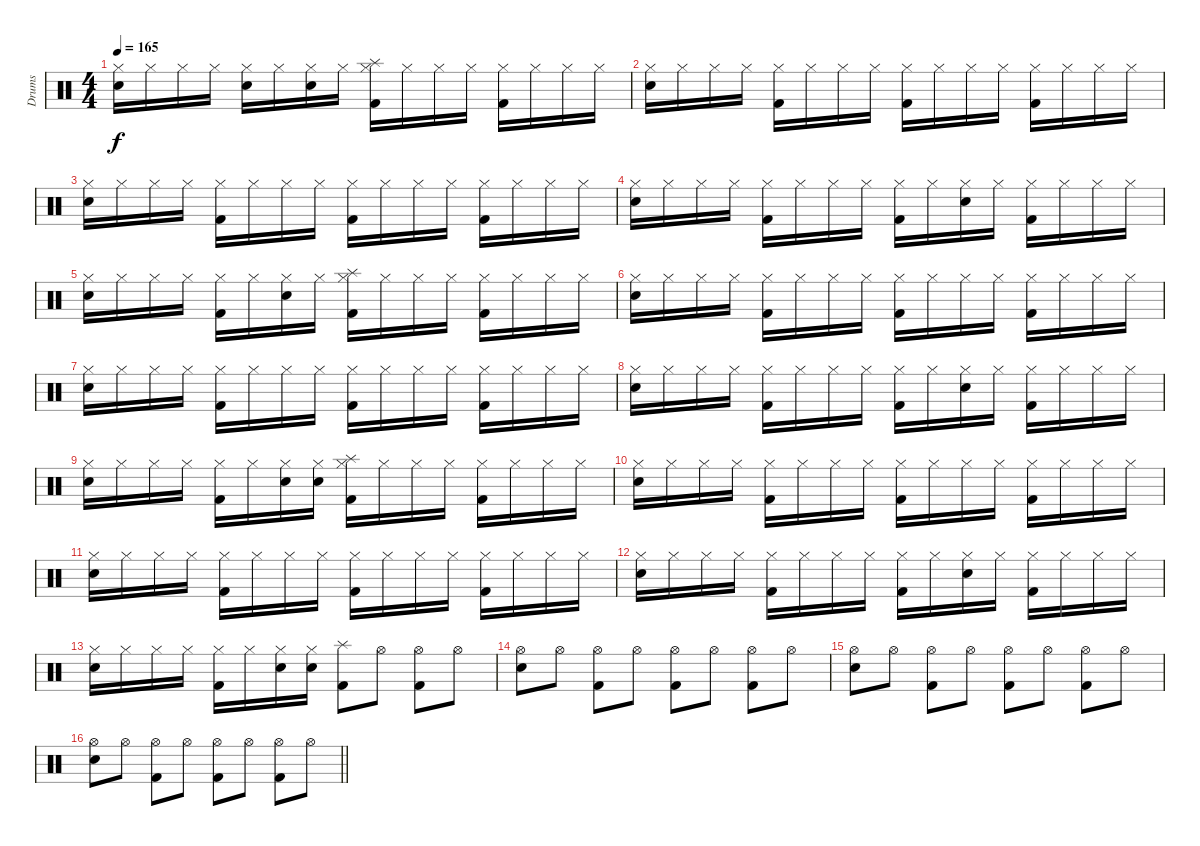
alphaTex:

\track ("Drums" "Drums") {instrument percussion}
\staff {score}
\articulation defaults
\ts (4 4)
\tempo 165
\clef neutral
\ks c
("Hi-Hat (closed)" "Electric Snare (hit)").16{dy f} "Hi-Hat (closed)".16 "Hi-Hat (closed)".16 "Hi-Hat (closed)".16 ("Hi-Hat (closed)" "Electric Snare (hit)").16 "Hi-Hat (closed)".16 ("Hi-Hat (closed)" "Electric Snare (hit)").16 "Hi-Hat (closed)".16 ("Splash (hit)" "Kick (hit) 2" "Hi-Hat (closed)").16 "Hi-Hat (closed)".16 "Hi-Hat (closed)".16 "Hi-Hat (closed)".16 ("Kick (hit) 2" "Hi-Hat (closed)").16 "Hi-Hat (closed)".16 "Hi-Hat (closed)".16 "Hi-Hat (closed)".16 |
("Hi-Hat (closed)" "Electric Snare (hit)").16 "Hi-Hat (closed)".16 "Hi-Hat (closed)".16 "Hi-Hat (closed)".16 ("Kick (hit) 2" "Hi-Hat (closed)").16 "Hi-Hat (closed)".16 "Hi-Hat (closed)".16 "Hi-Hat (closed)".16 ("Kick (hit) 2" "Hi-Hat (closed)").16 "Hi-Hat (closed)".16 "Hi-Hat (closed)".16 "Hi-Hat (closed)".16 ("Kick (hit) 2" "Hi-Hat (closed)").16 "Hi-Hat (closed)".16 "Hi-Hat (closed)".16 "Hi-Hat (closed)".16 |
("Hi-Hat (closed)" "Electric Snare (hit)").16 "Hi-Hat (closed)".16 "Hi-Hat (closed)".16 "Hi-Hat (closed)".16 ("Kick (hit) 2" "Hi-Hat (closed)").16 "Hi-Hat (closed)".16 "Hi-Hat (closed)".16 "Hi-Hat (closed)".16 ("Kick (hit) 2" "Hi-Hat (closed)").16 "Hi-Hat (closed)".16 "Hi-Hat (closed)".16 "Hi-Hat (closed)".16 ("Kick (hit) 2" "Hi-Hat (closed)").16 "Hi-Hat (closed)".16 "Hi-Hat (closed)".16 "Hi-Hat (closed)".16 |
("Hi-Hat (closed)" "Electric Snare (hit)").16 "Hi-Hat (closed)".16 "Hi-Hat (closed)".16 "Hi-Hat (closed)".16 ("Kick (hit) 2" "Hi-Hat (closed)").16 "Hi-Hat (closed)".16 "Hi-Hat (closed)".16 "Hi-Hat (closed)".16 ("Kick (hit) 2" "Hi-Hat (closed)").16 "Hi-Hat (closed)".16 ("Hi-Hat (closed)" "Electric Snare (hit)").16 "Hi-Hat (closed)".16 ("Kick (hit) 2" "Hi-Hat (closed)").16 "Hi-Hat (closed)".16 "Hi-Hat (closed)".16 "Hi-Hat (closed)".16 |
("Hi-Hat (closed)" "Electric Snare (hit)").16 "Hi-Hat (closed)".16 "Hi-Hat (closed)".16 "Hi-Hat (closed)".16 ("Kick (hit) 2" "Hi-Hat (closed)").16 "Hi-Hat (closed)".16 ("Hi-Hat (closed)" "Electric Snare (hit)").16 "Hi-Hat (closed)".16 ("Splash (hit)" "Kick (hit) 2" "Hi-Hat (closed)").16 "Hi-Hat (closed)".16 "Hi-Hat (closed)".16 "Hi-Hat (closed)".16 ("Kick (hit) 2" "Hi-Hat (closed)").16 "Hi-Hat (closed)".16 "Hi-Hat (closed)".16 "Hi-Hat (closed)".16 |
("Hi-Hat (closed)" "Electric Snare (hit)").16 "Hi-Hat (closed)".16 "Hi-Hat (closed)".16 "Hi-Hat (closed)".16 ("Kick (hit) 2" "Hi-Hat (closed)").16 "Hi-Hat (closed)".16 "Hi-Hat (closed)".16 "Hi-Hat (closed)".16 ("Kick (hit) 2" "Hi-Hat (closed)").16 "Hi-Hat (closed)".16 "Hi-Hat (closed)".16 "Hi-Hat (closed)".16 ("Kick (hit) 2" "Hi-Hat (closed)").16 "Hi-Hat (closed)".16 "Hi-Hat (closed)".16 "Hi-Hat (closed)".16 |
("Hi-Hat (closed)" "Electric Snare (hit)").16 "Hi-Hat (closed)".16 "Hi-Hat (closed)".16 "Hi-Hat (closed)".16 ("Kick (hit) 2" "Hi-Hat (closed)").16 "Hi-Hat (closed)".16 "Hi-Hat (closed)".16 "Hi-Hat (closed)".16 ("Kick (hit) 2" "Hi-Hat (closed)").16 "Hi-Hat (closed)".16 "Hi-Hat (closed)".16 "Hi-Hat (closed)".16 ("Kick (hit) 2" "Hi-Hat (closed)").16 "Hi-Hat (closed)".16 "Hi-Hat (closed)".16 "Hi-Hat (closed)".16 |
("Hi-Hat (closed)" "Electric Snare (hit)").16 "Hi-Hat (closed)".16 "Hi-Hat (closed)".16 "Hi-Hat (closed)".16 ("Kick (hit) 2" "Hi-Hat (closed)").16 "Hi-Hat (closed)".16 "Hi-Hat (closed)".16 "Hi-Hat (closed)".16 ("Kick (hit) 2" "Hi-Hat (closed)").16 "Hi-Hat (closed)".16 ("Hi-Hat (closed)" "Electric Snare (hit)").16 "Hi-Hat (closed)".16 ("Kick (hit) 2" "Hi-Hat (closed)").16 "Hi-Hat (closed)".16 "Hi-Hat (closed)".16 "Hi-Hat (closed)".16 |
("Hi-Hat (closed)" "Electric Snare (hit)").16 "Hi-Hat (closed)".16 "Hi-Hat (closed)".16 "Hi-Hat (closed)".16 ("Kick (hit) 2" "Hi-Hat (closed)").16 "Hi-Hat (closed)".16 ("Hi-Hat (closed)" "Electric Snare (hit)").16 ("Hi-Hat (closed)" "Electric Snare (hit)").16 ("Splash (hit)" "Kick (hit) 2" "Hi-Hat (closed)").16 "Hi-Hat (closed)".16 "Hi-Hat (closed)".16 "Hi-Hat (closed)".16 ("Kick (hit) 2" "Hi-Hat (closed)").16 "Hi-Hat (closed)".16 "Hi-Hat (closed)".16 "Hi-Hat (closed)".16 |
("Hi-Hat (closed)" "Electric Snare (hit)").16 "Hi-Hat (closed)".16 "Hi-Hat (closed)".16 "Hi-Hat (closed)".16 ("Kick (hit) 2" "Hi-Hat (closed)").16 "Hi-Hat (closed)".16 "Hi-Hat (closed)".16 "Hi-Hat (closed)".16 ("Kick (hit) 2" "Hi-Hat (closed)").16 "Hi-Hat (closed)".16 "Hi-Hat (closed)".16 "Hi-Hat (closed)".16 ("Kick (hit) 2" "Hi-Hat (closed)").16 "Hi-Hat (closed)".16 "Hi-Hat (closed)".16 "Hi-Hat (closed)".16 |
("Hi-Hat (closed)" "Electric Snare (hit)").16 "Hi-Hat (closed)".16 "Hi-Hat (closed)".16 "Hi-Hat (closed)".16 ("Kick (hit) 2" "Hi-Hat (closed)").16 "Hi-Hat (closed)".16 "Hi-Hat (closed)".16 "Hi-Hat (closed)".16 ("Kick (hit) 2" "Hi-Hat (closed)").16 "Hi-Hat (closed)".16 "Hi-Hat (closed)".16 "Hi-Hat (closed)".16 ("Kick (hit) 2" "Hi-Hat (closed)").16 "Hi-Hat (closed)".16 "Hi-Hat (closed)".16 "Hi-Hat (closed)".16 |
("Hi-Hat (closed)" "Electric Snare (hit)").16 "Hi-Hat (closed)".16 "Hi-Hat (closed)".16 "Hi-Hat (closed)".16 ("Kick (hit) 2" "Hi-Hat (closed)").16 "Hi-Hat (closed)".16 "Hi-Hat (closed)".16 "Hi-Hat (closed)".16 ("Kick (hit) 2" "Hi-Hat (closed)").16 "Hi-Hat (closed)".16 ("Hi-Hat (closed)" "Electric Snare (hit)").16 "Hi-Hat (closed)".16 ("Kick (hit) 2" "Hi-Hat (closed)").16 "Hi-Hat (closed)".16 "Hi-Hat (closed)".16 "Hi-Hat (closed)".16 |
("Hi-Hat (closed)" "Electric Snare (hit)").16 "Hi-Hat (closed)".16 "Hi-Hat (closed)".16 "Hi-Hat (closed)".16 ("Kick (hit) 2" "Hi-Hat (closed)").16 "Hi-Hat (closed)".16 ("Hi-Hat (closed)" "Electric Snare (hit)").16 ("Hi-Hat (closed)" "Electric Snare (hit)").16 ("Splash (hit)" "Kick (hit) 2").8 "Hi-Hat (open)".8 ("Kick (hit) 2" "Hi-Hat (open)").8 "Hi-Hat (open)".8 |
("Hi-Hat (open)" "Electric Snare (hit)").8 "Hi-Hat (open)".8 ("Kick (hit) 2" "Hi-Hat (open)").8 "Hi-Hat (open)".8 ("Kick (hit) 2" "Hi-Hat (open)").8 "Hi-Hat (open)".8 ("Kick (hit) 2" "Hi-Hat (open)").8 "Hi-Hat (open)".8 |
("Hi-Hat (open)" "Electric Snare (hit)").8 "Hi-Hat (open)".8 ("Kick (hit) 2" "Hi-Hat (open)").8 "Hi-Hat (open)".8 ("Kick (hit) 2" "Hi-Hat (open)").8 "Hi-Hat (open)".8 ("Kick (hit) 2" "Hi-Hat (open)").8 "Hi-Hat (open)".8 |
\barLineRight lightlight
("Hi-Hat (open)" "Electric Snare (hit)").8 "Hi-Hat (open)".8 ("Kick (hit) 2" "Hi-Hat (open)").8 "Hi-Hat (open)".8 ("Kick (hit) 2" "Hi-Hat (open)").8 "Hi-Hat (open)".8 ("Kick (hit) 2" "Hi-Hat (open)").8 "Hi-Hat (open)".8
